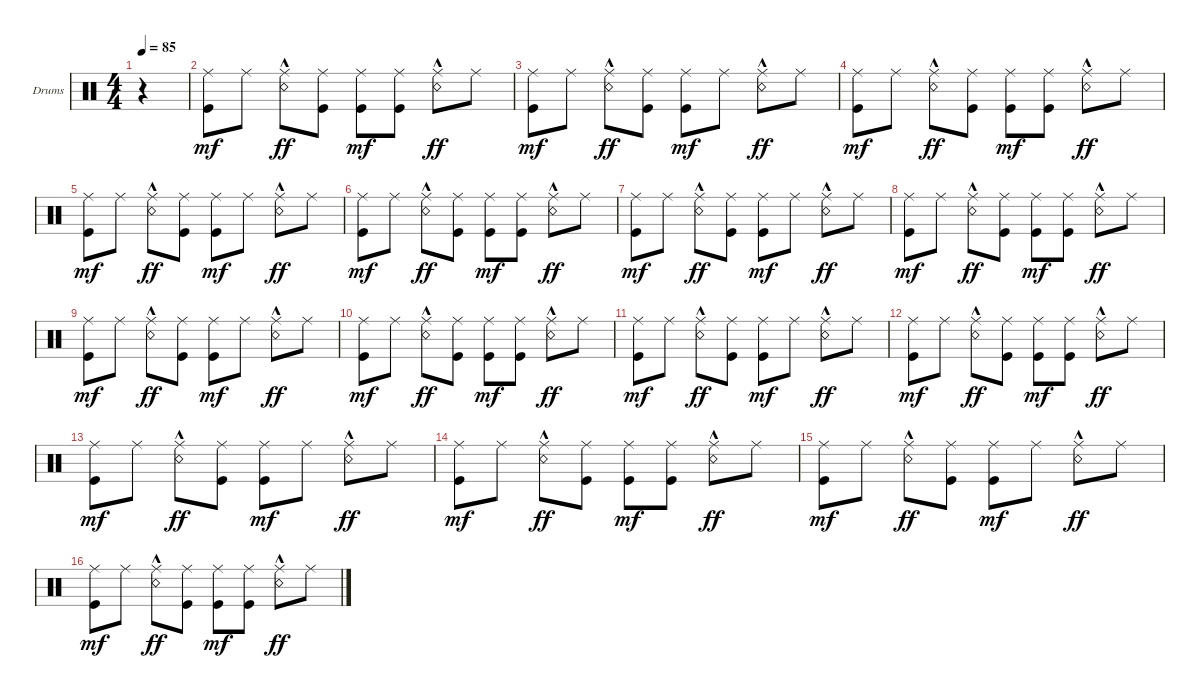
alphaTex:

\defaultSystemsLayout 4
\bracketExtendMode nobrackets
\firstSystemTrackNameOrientation horizontal
\otherSystemsTrackNameOrientation horizontal
\track ("Drumkit" "Drums") {instrument percussion}
\staff {score}
\articulation defaults
\ts (4 4)
\ac
\tempo 85
\clef neutral
\scale
0.474178
\ks c
r.4{dy mf} |
\scale
0.262911 ("Kick (hit)" "Ride (middle)").8 "Ride (middle)".8 ("Ride (middle)" "Snare (rim shot)"{hac}).8{dy ff} ("Ride (middle)" "Kick (hit)").8 ("Ride (middle)" "Kick (hit)").8{dy mf} ("Ride (middle)" "Kick (hit)").8 ("Ride (middle)" "Snare (rim shot)"{hac}).8{dy ff} "Ride (middle)".8 |
\scale
0.262911 ("Kick (hit)" "Ride (middle)").8{dy mf} "Ride (middle)".8 ("Ride (middle)" "Snare (rim shot)"{hac}).8{dy ff} ("Ride (middle)" "Kick (hit)").8 ("Ride (middle)" "Kick (hit)").8{dy mf} "Ride (middle)".8 ("Ride (middle)" "Snare (rim shot)"{hac}).8{dy ff} "Ride (middle)".8 |
\scale
0.333333 ("Kick (hit)" "Ride (middle)").8{dy mf} "Ride (middle)".8 ("Ride (middle)" "Snare (rim shot)"{hac}).8{dy ff} ("Ride (middle)" "Kick (hit)").8 ("Ride (middle)" "Kick (hit)").8{dy mf} ("Ride (middle)" "Kick (hit)").8 ("Ride (middle)" "Snare (rim shot)"{hac}).8{dy ff} "Ride (middle)".8 |
\scale
0.333333 ("Kick (hit)" "Ride (middle)").8{dy mf} "Ride (middle)".8 ("Ride (middle)" "Snare (rim shot)"{hac}).8{dy ff} ("Ride (middle)" "Kick (hit)").8 ("Ride (middle)" "Kick (hit)").8{dy mf} "Ride (middle)".8 ("Ride (middle)" "Snare (rim shot)"{hac}).8{dy ff} "Ride (middle)".8 |
\scale
0.333333 ("Kick (hit)" "Ride (middle)").8{dy mf} "Ride (middle)".8 ("Ride (middle)" "Snare (rim shot)"{hac}).8{dy ff} ("Ride (middle)" "Kick (hit)").8 ("Ride (middle)" "Kick (hit)").8{dy mf} ("Ride (middle)" "Kick (hit)").8 ("Ride (middle)" "Snare (rim shot)"{hac}).8{dy ff} "Ride (middle)".8 |
\scale
0.333333 ("Kick (hit)" "Ride (middle)").8{dy mf} "Ride (middle)".8 ("Ride (middle)" "Snare (rim shot)"{hac}).8{dy ff} ("Ride (middle)" "Kick (hit)").8 ("Ride (middle)" "Kick (hit)").8{dy mf} "Ride (middle)".8 ("Ride (middle)" "Snare (rim shot)"{hac}).8{dy ff} "Ride (middle)".8 |
\scale
0.333333 ("Kick (hit)" "Ride (middle)").8{dy mf} "Ride (middle)".8 ("Ride (middle)" "Snare (rim shot)"{hac}).8{dy ff} ("Ride (middle)" "Kick (hit)").8 ("Ride (middle)" "Kick (hit)").8{dy mf} ("Ride (middle)" "Kick (hit)").8 ("Ride (middle)" "Snare (rim shot)"{hac}).8{dy ff} "Ride (middle)".8 |
\scale
0.333333 ("Kick (hit)" "Ride (middle)").8{dy mf} "Ride (middle)".8 ("Ride (middle)" "Snare (rim shot)"{hac}).8{dy ff} ("Ride (middle)" "Kick (hit)").8 ("Ride (middle)" "Kick (hit)").8{dy mf} "Ride (middle)".8 ("Ride (middle)" "Snare (rim shot)"{hac}).8{dy ff} "Ride (middle)".8 |
\scale
0.333333 ("Kick (hit)" "Ride (middle)").8{dy mf} "Ride (middle)".8 ("Ride (middle)" "Snare (rim shot)"{hac}).8{dy ff} ("Ride (middle)" "Kick (hit)").8 ("Ride (middle)" "Kick (hit)").8{dy mf} ("Ride (middle)" "Kick (hit)").8 ("Ride (middle)" "Snare (rim shot)"{hac}).8{dy ff} "Ride (middle)".8 |
\scale
0.333333 ("Kick (hit)" "Ride (middle)").8{dy mf} "Ride (middle)".8 ("Ride (middle)" "Snare (rim shot)"{hac}).8{dy ff} ("Ride (middle)" "Kick (hit)").8 ("Ride (middle)" "Kick (hit)").8{dy mf} "Ride (middle)".8 ("Ride (middle)" "Snare (rim shot)"{hac}).8{dy ff} "Ride (middle)".8 |
("Kick (hit)" "Ride (middle)").8{dy mf} "Ride (middle)".8 ("Ride (middle)" "Snare (rim shot)"{hac}).8{dy ff} ("Ride (middle)" "Kick (hit)").8 ("Ride (middle)" "Kick (hit)").8{dy mf} ("Ride (middle)" "Kick (hit)").8 ("Ride (middle)" "Snare (rim shot)"{hac}).8{dy ff} "Ride (middle)".8 |
("Kick (hit)" "Ride (middle)").8{dy mf} "Ride (middle)".8 ("Ride (middle)" "Snare (rim shot)"{hac}).8{dy ff} ("Ride (middle)" "Kick (hit)").8 ("Ride (middle)" "Kick (hit)").8{dy mf} "Ride (middle)".8 ("Ride (middle)" "Snare (rim shot)"{hac}).8{dy ff} "Ride (middle)".8 |
("Kick (hit)" "Ride (middle)").8{dy mf} "Ride (middle)".8 ("Ride (middle)" "Snare (rim shot)"{hac}).8{dy ff} ("Ride (middle)" "Kick (hit)").8 ("Ride (middle)" "Kick (hit)").8{dy mf} ("Ride (middle)" "Kick (hit)").8 ("Ride (middle)" "Snare (rim shot)"{hac}).8{dy ff} "Ride (middle)".8 |
("Kick (hit)" "Ride (middle)").8{dy mf} "Ride (middle)".8 ("Ride (middle)" "Snare (rim shot)"{hac}).8{dy ff} ("Ride (middle)" "Kick (hit)").8 ("Ride (middle)" "Kick (hit)").8{dy mf} "Ride (middle)".8 ("Ride (middle)" "Snare (rim shot)"{hac}).8{dy ff} "Ride (middle)".8 |
("Kick (hit)" "Ride (middle)").8{dy mf} "Ride (middle)".8 ("Ride (middle)" "Snare (rim shot)"{hac}).8{dy ff} ("Ride (middle)" "Kick (hit)").8 ("Ride (middle)" "Kick (hit)").8{dy mf} ("Ride (middle)" "Kick (hit)").8 ("Ride (middle)" "Snare (rim shot)"{hac}).8{dy ff} "Ride (middle)".8
